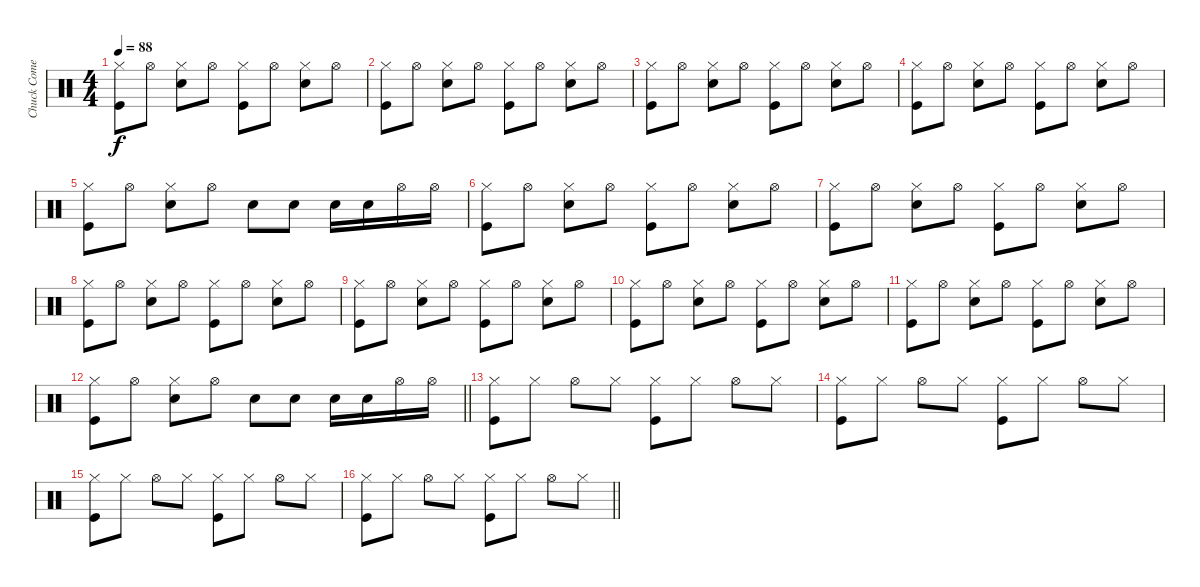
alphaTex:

\track ("Chuck Comeau" "Chuck Come") {instrument percussion}
\staff {score}
\articulation defaults
\ts (4 4)
\tempo 88
\clef neutral
\ks c
("Hi-Hat (closed)" "Kick (hit)").8{dy f} "Hi-Hat (open)".8 ("Hi-Hat (closed)" "Snare (hit) 2").8 "Hi-Hat (open)".8 ("Hi-Hat (closed)" "Kick (hit)").8 "Hi-Hat (open)".8 ("Hi-Hat (closed)" "Snare (hit) 2").8 "Hi-Hat (open)".8 |
("Hi-Hat (closed)" "Kick (hit)").8 "Hi-Hat (open)".8 ("Hi-Hat (closed)" "Snare (hit) 2").8 "Hi-Hat (open)".8 ("Hi-Hat (closed)" "Kick (hit)").8 "Hi-Hat (open)".8 ("Hi-Hat (closed)" "Snare (hit) 2").8 "Hi-Hat (open)".8 |
("Hi-Hat (closed)" "Kick (hit)").8 "Hi-Hat (open)".8 ("Hi-Hat (closed)" "Snare (hit) 2").8 "Hi-Hat (open)".8 ("Hi-Hat (closed)" "Kick (hit)").8 "Hi-Hat (open)".8 ("Hi-Hat (closed)" "Snare (hit) 2").8 "Hi-Hat (open)".8 |
("Hi-Hat (closed)" "Kick (hit)").8 "Hi-Hat (open)".8 ("Hi-Hat (closed)" "Snare (hit) 2").8 "Hi-Hat (open)".8 ("Hi-Hat (closed)" "Kick (hit)").8 "Hi-Hat (open)".8 ("Hi-Hat (closed)" "Snare (hit) 2").8 "Hi-Hat (open)".8 |
("Hi-Hat (closed)" "Kick (hit)").8 "Hi-Hat (open)".8 ("Hi-Hat (closed)" "Snare (hit) 2").8 "Hi-Hat (open)".8 "Snare (hit) 2".8 "Snare (hit) 2".8 "Snare (hit) 2".16 "Snare (hit) 2".16 "Hi-Hat (open)".16 "Hi-Hat (open)".16 |
("Hi-Hat (closed)" "Kick (hit)").8 "Hi-Hat (open)".8 ("Hi-Hat (closed)" "Snare (hit) 2").8 "Hi-Hat (open)".8 ("Hi-Hat (closed)" "Kick (hit)").8 "Hi-Hat (open)".8 ("Hi-Hat (closed)" "Snare (hit) 2").8 "Hi-Hat (open)".8 |
("Hi-Hat (closed)" "Kick (hit)").8 "Hi-Hat (open)".8 ("Hi-Hat (closed)" "Snare (hit) 2").8 "Hi-Hat (open)".8 ("Hi-Hat (closed)" "Kick (hit)").8 "Hi-Hat (open)".8 ("Hi-Hat (closed)" "Snare (hit) 2").8 "Hi-Hat (open)".8 |
("Hi-Hat (closed)" "Kick (hit)").8 "Hi-Hat (open)".8 ("Hi-Hat (closed)" "Snare (hit) 2").8 "Hi-Hat (open)".8 ("Hi-Hat (closed)" "Kick (hit)").8 "Hi-Hat (open)".8 ("Hi-Hat (closed)" "Snare (hit) 2").8 "Hi-Hat (open)".8 |
("Hi-Hat (closed)" "Kick (hit)").8 "Hi-Hat (open)".8 ("Hi-Hat (closed)" "Snare (hit) 2").8 "Hi-Hat (open)".8 ("Hi-Hat (closed)" "Kick (hit)").8 "Hi-Hat (open)".8 ("Hi-Hat (closed)" "Snare (hit) 2").8 "Hi-Hat (open)".8 |
("Hi-Hat (closed)" "Kick (hit)").8 "Hi-Hat (open)".8 ("Hi-Hat (closed)" "Snare (hit) 2").8 "Hi-Hat (open)".8 ("Hi-Hat (closed)" "Kick (hit)").8 "Hi-Hat (open)".8 ("Hi-Hat (closed)" "Snare (hit) 2").8 "Hi-Hat (open)".8 |
("Hi-Hat (closed)" "Kick (hit)").8 "Hi-Hat (open)".8 ("Hi-Hat (closed)" "Snare (hit) 2").8 "Hi-Hat (open)".8 ("Hi-Hat (closed)" "Kick (hit)").8 "Hi-Hat (open)".8 ("Hi-Hat (closed)" "Snare (hit) 2").8 "Hi-Hat (open)".8 |
\barLineRight lightlight
("Hi-Hat (closed)" "Kick (hit)").8 "Hi-Hat (open)".8 ("Hi-Hat (closed)" "Snare (hit) 2").8 "Hi-Hat (open)".8 "Snare (hit) 2".8 "Snare (hit) 2".8 "Snare (hit) 2".16 "Snare (hit) 2".16 "Hi-Hat (open)".16 "Hi-Hat (open)".16 |
("Hi-Hat (closed)" "Kick (hit)").8 "Hi-Hat (closed)".8 "Hi-Hat (open)".8 "Hi-Hat (closed)".8 ("Hi-Hat (closed)" "Kick (hit)").8 "Hi-Hat (closed)".8 "Hi-Hat (open)".8 "Hi-Hat (closed)".8 |
("Hi-Hat (closed)" "Kick (hit)").8 "Hi-Hat (closed)".8 "Hi-Hat (open)".8 "Hi-Hat (closed)".8 ("Hi-Hat (closed)" "Kick (hit)").8 "Hi-Hat (closed)".8 "Hi-Hat (open)".8 "Hi-Hat (closed)".8 |
("Hi-Hat (closed)" "Kick (hit)").8 "Hi-Hat (closed)".8 "Hi-Hat (open)".8 "Hi-Hat (closed)".8 ("Hi-Hat (closed)" "Kick (hit)").8 "Hi-Hat (closed)".8 "Hi-Hat (open)".8 "Hi-Hat (closed)".8 |
\barLineRight lightlight
("Hi-Hat (closed)" "Kick (hit)").8 "Hi-Hat (closed)".8 "Hi-Hat (open)".8 "Hi-Hat (closed)".8 ("Hi-Hat (closed)" "Kick (hit)").8 "Hi-Hat (closed)".8 "Hi-Hat (open)".8 "Hi-Hat (closed)".8
